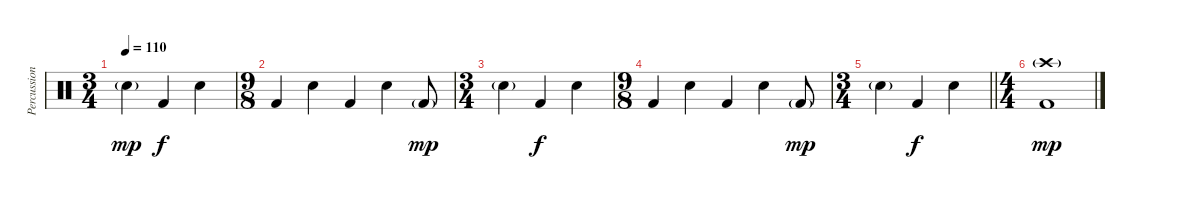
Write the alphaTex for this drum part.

\track ("Percussion" "Percussion") {instrument percussion}
\staff {score}
\articulation defaults
\ts (3 4)
\tempo 110
\clef neutral
\ks c "Snare (hit) 2"{g}.4{dy mp} "Kick (hit) 2".4{dy f} "Snare (hit) 2".4
|
\ts (9 8)
"Kick (hit) 2".4 "Snare (hit) 2".4 "Kick (hit) 2".4 "Snare (hit) 2".4 "Kick (hit) 2"{g}.8{dy mp} |
\ts (3 4)
"Snare (hit) 2"{g}.4 "Kick (hit) 2".4{dy f} "Snare (hit) 2".4 |
\ts (9 8)
"Kick (hit) 2".4 "Snare (hit) 2".4 "Kick (hit) 2".4 "Snare (hit) 2".4 "Kick (hit) 2"{g}.8{dy mp} |
\ts (3 4)
\barLineRight lightlight "Snare (hit) 2"{g}.4 "Kick (hit) 2".4{dy f} "Snare (hit) 2".4
|
\ts (4 4)
("Crash high (hit)"{g} "Kick (hit) 2").1{dy mp}
